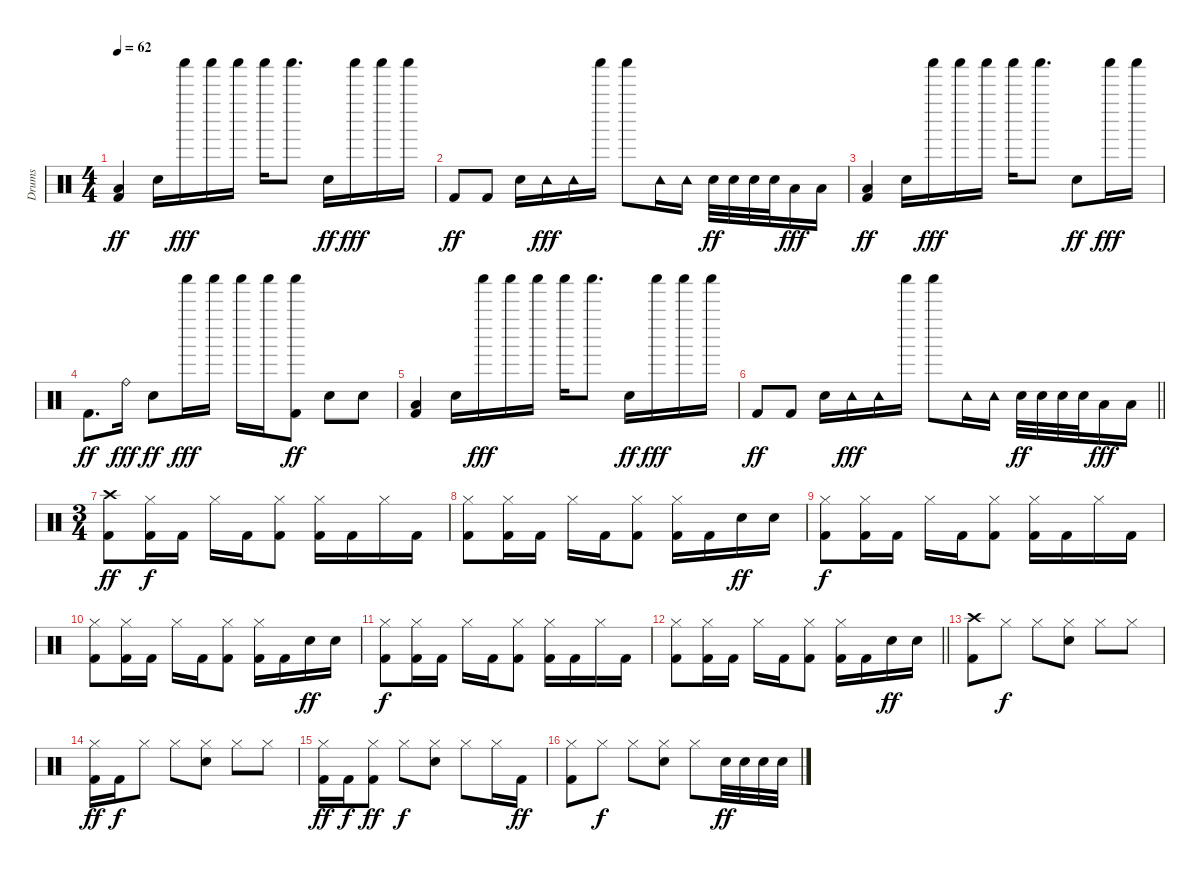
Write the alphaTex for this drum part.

\track ("Drums" "Drums") {instrument percussion}
\staff {score}
\articulation defaults
\ts (4 4)
\tempo 62
\clef neutral
\ks c
("Low Floor Tom (hit)" "Kick (hit) 2").4{dy ff} "Electric Snare (hit)".16 "Shaker (hit)".16{dy fff} "Shaker (hit)".16 "Shaker (hit)".16 "Shaker (hit)".16 "Shaker (hit)".8{d} "Electric Snare (hit)".16{dy ff} "Shaker (hit)".16{dy fff} "Shaker (hit)".16 "Shaker (hit)".16 |
"Kick (hit) 2".8{dy ff} "Kick (hit) 2".8 "Electric Snare (hit)".16 "Tambourine (hit)".16{dy fff} "Tambourine (hit)".16 "Shaker (hit)".16 "Shaker (hit)".8 "Tambourine (hit)".16 "Tambourine (hit)".16 "Electric Snare (hit)".32{dy ff} "Electric Snare (hit)".32 "Electric Snare (hit)".32 "Electric Snare (hit)".32 "Low Floor Tom (hit)".16{dy fff} "Low Floor Tom (hit)".16 |
("Low Floor Tom (hit)" "Kick (hit) 2").4{dy ff} "Electric Snare (hit)".16 "Shaker (hit)".16{dy fff} "Shaker (hit)".16 "Shaker (hit)".16 "Shaker (hit)".16 "Shaker (hit)".8{d} "Electric Snare (hit)".8{dy ff} "Shaker (hit)".16{dy fff} "Shaker (hit)".16 |
"Kick (hit) 2".8{d dy ff} "Ride (bell)".16{dy fff} "Electric Snare (hit)".8{dy ff} "Shaker (hit)".16{dy fff} "Shaker (hit)".16 "Shaker (hit)".16 "Shaker (hit)".16 ("Shaker (hit)" "Kick (hit) 2").8{dy ff} "Electric Snare (hit)".8 "Electric Snare (hit)".8 |
("Low Floor Tom (hit)" "Kick (hit) 2").4 "Electric Snare (hit)".16 "Shaker (hit)".16{dy fff} "Shaker (hit)".16 "Shaker (hit)".16 "Shaker (hit)".16 "Shaker (hit)".8{d} "Electric Snare (hit)".16{dy ff} "Shaker (hit)".16{dy fff} "Shaker (hit)".16 "Shaker (hit)".16 |
\barLineRight lightlight "Kick (hit) 2".8{dy ff} "Kick (hit) 2".8 "Electric Snare (hit)".16 "Tambourine (hit)".16{dy fff} "Tambourine (hit)".16 "Shaker (hit)".16 "Shaker (hit)".8 "Tambourine (hit)".16 "Tambourine (hit)".16 "Electric Snare (hit)".32{dy ff} "Electric Snare (hit)".32 "Electric Snare (hit)".32 "Electric Snare (hit)".32 "Low Floor Tom (hit)".16{dy fff} "Low Floor Tom (hit)".16
|
\ts (3 4)
("Crash high (hit)" "Kick (hit) 2").8{dy ff} ("Hi-Hat (closed)" "Kick (hit) 2").16{dy f} "Kick (hit) 2".16 "Hi-Hat (closed)".16 "Kick (hit) 2".16 ("Hi-Hat (closed)" "Kick (hit) 2").8 ("Hi-Hat (closed)" "Kick (hit) 2").16 "Kick (hit) 2".16 "Hi-Hat (closed)".16 "Kick (hit) 2".16 |
("Hi-Hat (closed)" "Kick (hit) 2").8 ("Hi-Hat (closed)" "Kick (hit) 2").16 "Kick (hit) 2".16 "Hi-Hat (closed)".16 "Kick (hit) 2".16 ("Hi-Hat (closed)" "Kick (hit) 2").8 ("Hi-Hat (closed)" "Kick (hit) 2").16 "Kick (hit) 2".16 "Electric Snare (hit)".16{dy ff} "Electric Snare (hit)".16 |
("Hi-Hat (closed)" "Kick (hit) 2").8{dy f} ("Hi-Hat (closed)" "Kick (hit) 2").16 "Kick (hit) 2".16 "Hi-Hat (closed)".16 "Kick (hit) 2".16 ("Hi-Hat (closed)" "Kick (hit) 2").8 ("Hi-Hat (closed)" "Kick (hit) 2").16 "Kick (hit) 2".16 "Hi-Hat (closed)".16 "Kick (hit) 2".16 |
("Hi-Hat (closed)" "Kick (hit) 2").8 ("Hi-Hat (closed)" "Kick (hit) 2").16 "Kick (hit) 2".16 "Hi-Hat (closed)".16 "Kick (hit) 2".16 ("Hi-Hat (closed)" "Kick (hit) 2").8 ("Hi-Hat (closed)" "Kick (hit) 2").16 "Kick (hit) 2".16 "Electric Snare (hit)".16{dy ff} "Electric Snare (hit)".16 |
("Hi-Hat (closed)" "Kick (hit) 2").8{dy f} ("Hi-Hat (closed)" "Kick (hit) 2").16 "Kick (hit) 2".16 "Hi-Hat (closed)".16 "Kick (hit) 2".16 ("Hi-Hat (closed)" "Kick (hit) 2").8 ("Hi-Hat (closed)" "Kick (hit) 2").16 "Kick (hit) 2".16 "Hi-Hat (closed)".16 "Kick (hit) 2".16 |
\barLineRight lightlight
("Hi-Hat (closed)" "Kick (hit) 2").8 ("Hi-Hat (closed)" "Kick (hit) 2").16 "Kick (hit) 2".16 "Hi-Hat (closed)".16 "Kick (hit) 2".16 ("Hi-Hat (closed)" "Kick (hit) 2").8 ("Hi-Hat (closed)" "Kick (hit) 2").16 "Kick (hit) 2".16 "Electric Snare (hit)".16{dy ff} "Electric Snare (hit)".16 |
("Crash high (hit)" "Kick (hit) 2").8 "Hi-Hat (closed)".8{dy f} "Hi-Hat (closed)".8 ("Hi-Hat (closed)" "Electric Snare (hit)").8 "Hi-Hat (closed)".8 "Hi-Hat (closed)".8 |
("Hi-Hat (closed)" "Kick (hit) 2").16{dy ff} "Kick (hit) 2".16{dy f} "Hi-Hat (closed)".8 "Hi-Hat (closed)".8 ("Hi-Hat (closed)" "Electric Snare (hit)").8 "Hi-Hat (closed)".8 "Hi-Hat (closed)".8 |
("Hi-Hat (closed)" "Kick (hit) 2").16{dy ff} "Kick (hit) 2".16{dy f} ("Hi-Hat (closed)" "Kick (hit) 2").8{dy ff} "Hi-Hat (closed)".8{dy f} ("Hi-Hat (closed)" "Electric Snare (hit)").8 "Hi-Hat (closed)".8 "Hi-Hat (closed)".16 "Kick (hit) 2".16{dy ff} |
("Hi-Hat (closed)" "Kick (hit) 2").8 "Hi-Hat (closed)".8{dy f} "Hi-Hat (closed)".8 ("Hi-Hat (closed)" "Electric Snare (hit)").8 "Hi-Hat (closed)".8 "Snare (hit) 2".32{dy ff} "Electric Snare (hit)".32 "Electric Snare (hit)".32 "Electric Snare (hit)".32
